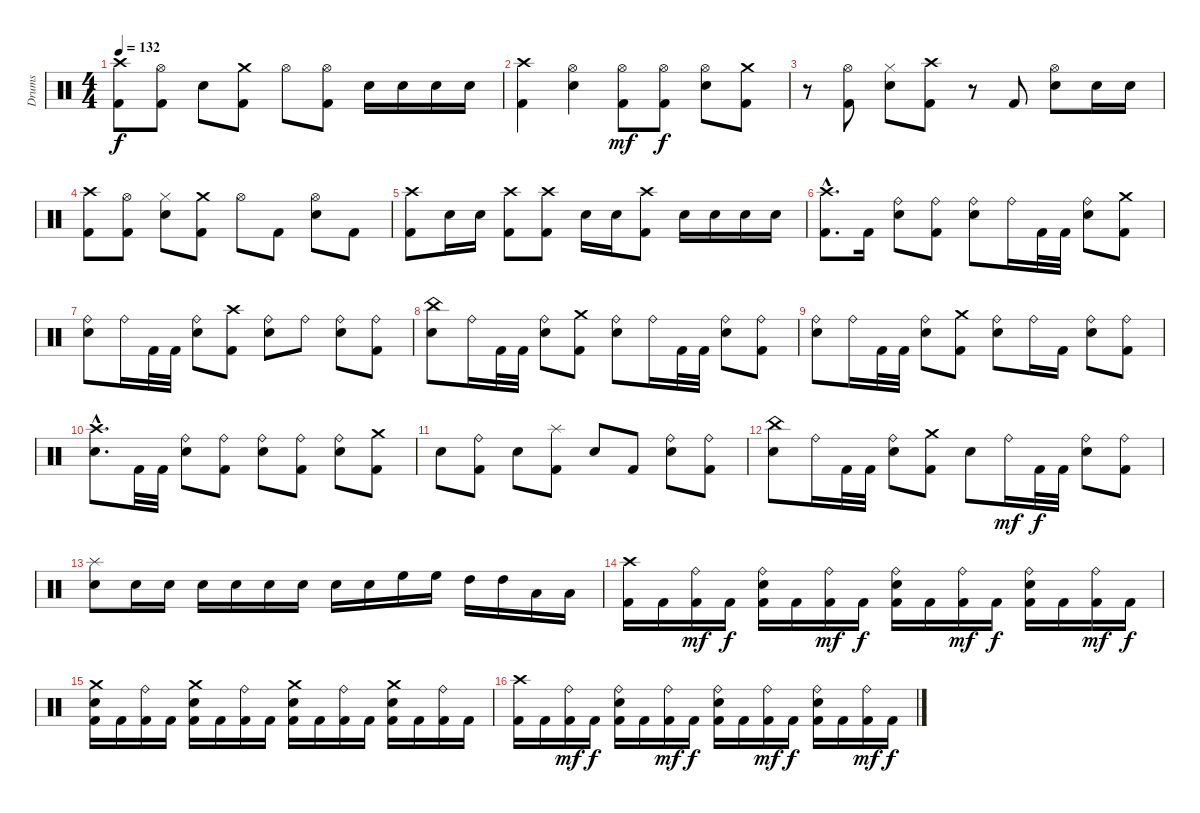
\track ("Drums" "Drums") {instrument percussion}
\staff {score}
\articulation defaults
\ts (4 4)
\tempo 132
\clef neutral
\ks c
("Kick (hit) 2" "Crash high (hit)").8{dy f} ("Kick (hit) 2" "Hi-Hat (open)").8 "Electric Snare (hit)".8 ("Kick (hit) 2" "Crash medium (hit)").8 "Hi-Hat (open)".8 ("Kick (hit) 2" "Hi-Hat (open)").8 "Electric Snare (hit)".16 "Electric Snare (hit)".16 "Electric Snare (hit)".16 "Electric Snare (hit)".16 |
("Crash high (hit)" "Kick (hit) 2").4 ("Hi-Hat (open)" "Electric Snare (hit)").4 ("Kick (hit) 2" "Hi-Hat (open)").8{dy mf} ("Kick (hit) 2" "Hi-Hat (open)").8{dy f} ("Electric Snare (hit)" "Hi-Hat (open)").8 ("Kick (hit) 2" "Crash medium (hit)").8 |
r.8 ("Kick (hit) 2" "Hi-Hat (open)").8 ("Electric Snare (hit)" "Hi-Hat (closed)").8 ("Kick (hit) 2" "Crash high (hit)").8 r.8 "Kick (hit) 2".8 ("Electric Snare (hit)" "Hi-Hat (open)").8 "Electric Snare (hit)".16 "Electric Snare (hit)".16 |
("Crash high (hit)" "Kick (hit) 2").8 ("Kick (hit) 2" "Hi-Hat (open)").8 ("Electric Snare (hit)" "Hi-Hat (closed)").8 ("Kick (hit) 2" "Crash medium (hit)").8 "Hi-Hat (open)".8 "Kick (hit) 2".8 ("Electric Snare (hit)" "Hi-Hat (open)").8 "Kick (hit) 2".8 |
("Crash high (hit)" "Kick (hit) 2").8 "Electric Snare (hit)".16 "Electric Snare (hit)".16 ("Crash high (hit)" "Kick (hit) 2").8 ("Crash high (hit)" "Kick (hit) 2").8 "Electric Snare (hit)".16 "Electric Snare (hit)".16 ("Crash high (hit)" "Kick (hit) 2").8 "Electric Snare (hit)".16 "Electric Snare (hit)".16 "Electric Snare (hit)".16 "Electric Snare (hit)".16 |
("Crash high (hit)" "Kick (hit) 2"{hac}).8{d} "Kick (hit) 2".16 ("Electric Snare (hit)" "Ride (bell)").8 ("Kick (hit) 2" "Ride (bell)").8 ("Electric Snare (hit)" "Ride (bell)").8 "Ride (bell)".16 "Kick (hit) 2".32 "Kick (hit) 2".32 ("Electric Snare (hit)" "Ride (bell)").8 ("Kick (hit) 2" "Crash medium (hit)").8 |
("Ride (bell)" "Electric Snare (hit)").8 "Ride (bell)".16 "Kick (hit) 2".32 "Kick (hit) 2".32 ("Electric Snare (hit)" "Ride (bell)").8 ("Kick (hit) 2" "Crash high (hit)").8 ("Ride (bell)" "Electric Snare (hit)").8 "Ride (bell)".8 ("Ride (bell)" "Electric Snare (hit)").8 ("Ride (bell)" "Kick (hit) 2").8 |
("Electric Snare (hit)" "China (hit)").8 "Ride (bell)".16 "Kick (hit) 2".32 "Kick (hit) 2".32 ("Electric Snare (hit)" "Ride (bell)").8 ("Kick (hit) 2" "Crash medium (hit)").8 ("Electric Snare (hit)" "Ride (bell)").8 "Ride (bell)".16 "Kick (hit) 2".32 "Kick (hit) 2".32 ("Electric Snare (hit)" "Ride (bell)").8 ("Ride (bell)" "Kick (hit) 2").8 |
("Electric Snare (hit)" "Ride (bell)").8 "Ride (bell)".16 "Kick (hit) 2".32 "Kick (hit) 2".32 ("Electric Snare (hit)" "Ride (bell)").8 ("Kick (hit) 2" "Crash medium (hit)").8 ("Electric Snare (hit)" "Ride (bell)").8 "Ride (bell)".16 "Kick (hit) 2".16 ("Electric Snare (hit)" "Ride (bell)").8 ("Ride (bell)" "Kick (hit) 2").8 |
("Crash high (hit)" "Electric Snare (hit)"{hac}).8{d} "Kick (hit) 2".32 "Kick (hit) 2".32 ("Electric Snare (hit)" "Ride (bell)").8 ("Kick (hit) 2" "Ride (bell)").8 ("Electric Snare (hit)" "Ride (bell)").8 ("Ride (bell)" "Kick (hit) 2").8 ("Electric Snare (hit)" "Ride (bell)").8 ("Kick (hit) 2" "Crash medium (hit)").8 |
"Electric Snare (hit)".8 ("Ride (bell)" "Kick (hit) 2").8 "Electric Snare (hit)".8 ("Kick (hit) 2" "Splash (hit)").8 "Electric Snare (hit)".8 "Kick (hit) 2".8 ("Ride (bell)" "Electric Snare (hit)").8 ("Ride (bell)" "Kick (hit) 2").8 |
("Electric Snare (hit)" "China (hit)").8 "Ride (bell)".16 "Kick (hit) 2".32 "Kick (hit) 2".32 ("Electric Snare (hit)" "Ride (bell)").8 ("Kick (hit) 2" "Crash medium (hit)").8 "Electric Snare (hit)".8 "Ride (bell)".16{dy mf} "Kick (hit) 2".32{dy f} "Kick (hit) 2".32 ("Electric Snare (hit)" "Ride (bell)").8 ("Ride (bell)" "Kick (hit) 2").8 |
("Electric Snare (hit)" "Splash (hit)").8 "Electric Snare (hit)".16 "Electric Snare (hit)".16 "Electric Snare (hit)".16 "Electric Snare (hit)".16 "Electric Snare (hit)".16 "Electric Snare (hit)".16 "Electric Snare (hit)".16 "Electric Snare (hit)".16 "High Floor Tom (hit)".16 "High Floor Tom (hit)".16 "High Tom (hit)".16 "High Tom (hit)".16 "Low Tom (hit)".16 "Low Tom (hit)".16 |
("Kick (hit) 2" "Crash high (hit)").16 "Kick (hit) 2".16 ("Kick (hit) 2" "Ride (bell)").16{dy mf} "Kick (hit) 2".16{dy f} ("Kick (hit) 2" "Electric Snare (hit)" "Ride (bell)").16 "Kick (hit) 2".16 ("Kick (hit) 2" "Ride (bell)").16{dy mf} "Kick (hit) 2".16{dy f} ("Kick (hit) 2" "Electric Snare (hit)" "Ride (bell)").16 "Kick (hit) 2".16 ("Kick (hit) 2" "Ride (bell)").16{dy mf} "Kick (hit) 2".16{dy f} ("Kick (hit) 2" "Electric Snare (hit)" "Ride (bell)").16 "Kick (hit) 2".16 ("Kick (hit) 2" "Ride (bell)").16{dy mf} "Kick (hit) 2".16{dy f} |
("Kick (hit) 2" "Electric Snare (hit)" "Crash medium (hit)").16 "Kick (hit) 2".16 ("Kick (hit) 2" "Ride (bell)").16 "Kick (hit) 2".16 ("Kick (hit) 2" "Electric Snare (hit)" "Crash medium (hit)").16 "Kick (hit) 2".16 ("Kick (hit) 2" "Ride (bell)").16 "Kick (hit) 2".16 ("Kick (hit) 2" "Electric Snare (hit)" "Crash medium (hit)").16 "Kick (hit) 2".16 ("Kick (hit) 2" "Ride (bell)").16 "Kick (hit) 2".16 ("Kick (hit) 2" "Electric Snare (hit)" "Crash medium (hit)").16 "Kick (hit) 2".16 ("Kick (hit) 2" "Ride (bell)").16 "Kick (hit) 2".16 |
("Crash high (hit)" "Kick (hit) 2").16 "Kick (hit) 2".16 ("Kick (hit) 2" "Ride (bell)").16{dy mf} "Kick (hit) 2".16{dy f} ("Kick (hit) 2" "Electric Snare (hit)" "Ride (bell)").16 "Kick (hit) 2".16 ("Kick (hit) 2" "Ride (bell)").16{dy mf} "Kick (hit) 2".16{dy f} ("Kick (hit) 2" "Electric Snare (hit)" "Ride (bell)").16 "Kick (hit) 2".16 ("Kick (hit) 2" "Ride (bell)").16{dy mf} "Kick (hit) 2".16{dy f} ("Kick (hit) 2" "Electric Snare (hit)" "Ride (bell)").16 "Kick (hit) 2".16 ("Kick (hit) 2" "Ride (bell)").16{dy mf} "Kick (hit) 2".16{dy f}
